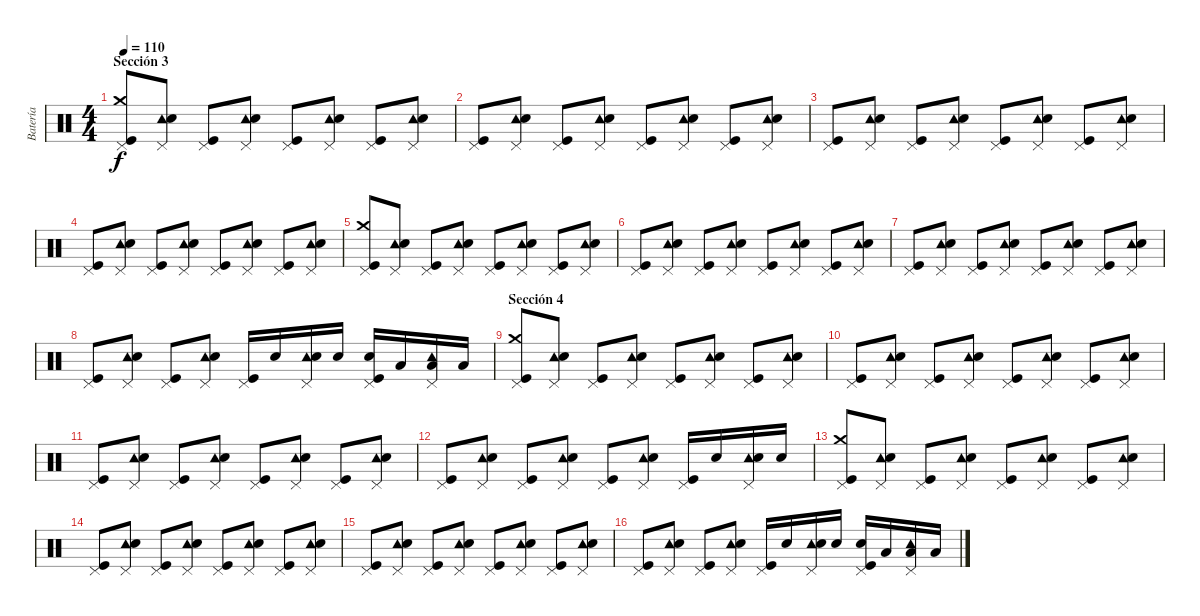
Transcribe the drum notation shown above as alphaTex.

\track ("Batería" "Batería") {instrument percussion}
\staff {score}
\articulation defaults
\ts (4 4)
\section ("" "Sección 3")
\tempo 110
\clef neutral
\ks c
("Pedal Hi-Hat (hit)" "Crash medium (hit)" "Kick (hit)").8{dy f} ("Pedal Hi-Hat (hit)" "Tambourine (hit)" "Electric Snare (hit)").8 ("Pedal Hi-Hat (hit)" "Kick (hit)").8 ("Pedal Hi-Hat (hit)" "Tambourine (hit)" "Electric Snare (hit)").8 ("Pedal Hi-Hat (hit)" "Kick (hit)").8 ("Pedal Hi-Hat (hit)" "Tambourine (hit)" "Electric Snare (hit)").8 ("Pedal Hi-Hat (hit)" "Kick (hit)").8 ("Pedal Hi-Hat (hit)" "Tambourine (hit)" "Electric Snare (hit)").8 |
("Pedal Hi-Hat (hit)" "Kick (hit)").8 ("Pedal Hi-Hat (hit)" "Tambourine (hit)" "Electric Snare (hit)").8 ("Pedal Hi-Hat (hit)" "Kick (hit)").8 ("Pedal Hi-Hat (hit)" "Tambourine (hit)" "Electric Snare (hit)").8 ("Pedal Hi-Hat (hit)" "Kick (hit)").8 ("Pedal Hi-Hat (hit)" "Tambourine (hit)" "Electric Snare (hit)").8 ("Pedal Hi-Hat (hit)" "Kick (hit)").8 ("Pedal Hi-Hat (hit)" "Tambourine (hit)" "Electric Snare (hit)").8 |
("Pedal Hi-Hat (hit)" "Kick (hit)").8 ("Pedal Hi-Hat (hit)" "Tambourine (hit)" "Electric Snare (hit)").8 ("Pedal Hi-Hat (hit)" "Kick (hit)").8 ("Pedal Hi-Hat (hit)" "Tambourine (hit)" "Electric Snare (hit)").8 ("Pedal Hi-Hat (hit)" "Kick (hit)").8 ("Pedal Hi-Hat (hit)" "Tambourine (hit)" "Electric Snare (hit)").8 ("Pedal Hi-Hat (hit)" "Kick (hit)").8 ("Pedal Hi-Hat (hit)" "Tambourine (hit)" "Electric Snare (hit)").8 |
("Pedal Hi-Hat (hit)" "Kick (hit)").8 ("Pedal Hi-Hat (hit)" "Tambourine (hit)" "Electric Snare (hit)").8 ("Pedal Hi-Hat (hit)" "Kick (hit)").8 ("Pedal Hi-Hat (hit)" "Tambourine (hit)" "Electric Snare (hit)").8 ("Pedal Hi-Hat (hit)" "Kick (hit)").8 ("Pedal Hi-Hat (hit)" "Tambourine (hit)" "Electric Snare (hit)").8 ("Pedal Hi-Hat (hit)" "Kick (hit)").8 ("Pedal Hi-Hat (hit)" "Tambourine (hit)" "Electric Snare (hit)").8 |
("Pedal Hi-Hat (hit)" "Crash medium (hit)" "Kick (hit)").8 ("Pedal Hi-Hat (hit)" "Tambourine (hit)" "Electric Snare (hit)").8 ("Pedal Hi-Hat (hit)" "Kick (hit)").8 ("Pedal Hi-Hat (hit)" "Tambourine (hit)" "Electric Snare (hit)").8 ("Pedal Hi-Hat (hit)" "Kick (hit)").8 ("Pedal Hi-Hat (hit)" "Tambourine (hit)" "Electric Snare (hit)").8 ("Pedal Hi-Hat (hit)" "Kick (hit)").8 ("Pedal Hi-Hat (hit)" "Tambourine (hit)" "Electric Snare (hit)").8 |
("Pedal Hi-Hat (hit)" "Kick (hit)").8 ("Pedal Hi-Hat (hit)" "Tambourine (hit)" "Electric Snare (hit)").8 ("Pedal Hi-Hat (hit)" "Kick (hit)").8 ("Pedal Hi-Hat (hit)" "Tambourine (hit)" "Electric Snare (hit)").8 ("Pedal Hi-Hat (hit)" "Kick (hit)").8 ("Pedal Hi-Hat (hit)" "Tambourine (hit)" "Electric Snare (hit)").8 ("Pedal Hi-Hat (hit)" "Kick (hit)").8 ("Pedal Hi-Hat (hit)" "Tambourine (hit)" "Electric Snare (hit)").8 |
("Pedal Hi-Hat (hit)" "Kick (hit)").8 ("Pedal Hi-Hat (hit)" "Tambourine (hit)" "Electric Snare (hit)").8 ("Pedal Hi-Hat (hit)" "Kick (hit)").8 ("Pedal Hi-Hat (hit)" "Tambourine (hit)" "Electric Snare (hit)").8 ("Pedal Hi-Hat (hit)" "Kick (hit)").8 ("Pedal Hi-Hat (hit)" "Tambourine (hit)" "Electric Snare (hit)").8 ("Pedal Hi-Hat (hit)" "Kick (hit)").8 ("Pedal Hi-Hat (hit)" "Tambourine (hit)" "Electric Snare (hit)").8 |
("Pedal Hi-Hat (hit)" "Kick (hit)").8 ("Pedal Hi-Hat (hit)" "Tambourine (hit)" "Electric Snare (hit)").8 ("Pedal Hi-Hat (hit)" "Kick (hit)").8 ("Pedal Hi-Hat (hit)" "Tambourine (hit)" "Electric Snare (hit)").8 ("Pedal Hi-Hat (hit)" "Kick (hit)").16 "Electric Snare (hit)".16 ("Pedal Hi-Hat (hit)" "Tambourine (hit)" "Electric Snare (hit)").16 "Electric Snare (hit)".16 ("Pedal Hi-Hat (hit)" "Electric Snare (hit)" "Kick (hit)").16 "Low Tom (hit)".16 ("Pedal Hi-Hat (hit)" "Tambourine (hit)" "Low Tom (hit)").16 "Low Tom (hit)".16 |
\section ("" "Sección 4")
("Pedal Hi-Hat (hit)" "Crash medium (hit)" "Kick (hit)").8 ("Pedal Hi-Hat (hit)" "Tambourine (hit)" "Electric Snare (hit)").8 ("Pedal Hi-Hat (hit)" "Kick (hit)").8 ("Pedal Hi-Hat (hit)" "Tambourine (hit)" "Electric Snare (hit)").8 ("Pedal Hi-Hat (hit)" "Kick (hit)").8 ("Pedal Hi-Hat (hit)" "Tambourine (hit)" "Electric Snare (hit)").8 ("Pedal Hi-Hat (hit)" "Kick (hit)").8 ("Pedal Hi-Hat (hit)" "Tambourine (hit)" "Electric Snare (hit)").8 |
("Pedal Hi-Hat (hit)" "Kick (hit)").8 ("Pedal Hi-Hat (hit)" "Tambourine (hit)" "Electric Snare (hit)").8 ("Pedal Hi-Hat (hit)" "Kick (hit)").8 ("Pedal Hi-Hat (hit)" "Tambourine (hit)" "Electric Snare (hit)").8 ("Pedal Hi-Hat (hit)" "Kick (hit)").8 ("Pedal Hi-Hat (hit)" "Tambourine (hit)" "Electric Snare (hit)").8 ("Pedal Hi-Hat (hit)" "Kick (hit)").8 ("Pedal Hi-Hat (hit)" "Tambourine (hit)" "Electric Snare (hit)").8 |
("Pedal Hi-Hat (hit)" "Kick (hit)").8 ("Pedal Hi-Hat (hit)" "Tambourine (hit)" "Electric Snare (hit)").8 ("Pedal Hi-Hat (hit)" "Kick (hit)").8 ("Pedal Hi-Hat (hit)" "Tambourine (hit)" "Electric Snare (hit)").8 ("Pedal Hi-Hat (hit)" "Kick (hit)").8 ("Pedal Hi-Hat (hit)" "Tambourine (hit)" "Electric Snare (hit)").8 ("Pedal Hi-Hat (hit)" "Kick (hit)").8 ("Pedal Hi-Hat (hit)" "Tambourine (hit)" "Electric Snare (hit)").8 |
("Pedal Hi-Hat (hit)" "Kick (hit)").8 ("Pedal Hi-Hat (hit)" "Tambourine (hit)" "Electric Snare (hit)").8 ("Pedal Hi-Hat (hit)" "Kick (hit)").8 ("Pedal Hi-Hat (hit)" "Tambourine (hit)" "Electric Snare (hit)").8 ("Pedal Hi-Hat (hit)" "Kick (hit)").8 ("Pedal Hi-Hat (hit)" "Tambourine (hit)" "Electric Snare (hit)").8 ("Pedal Hi-Hat (hit)" "Kick (hit)").16 "Electric Snare (hit)".16 ("Pedal Hi-Hat (hit)" "Tambourine (hit)" "Electric Snare (hit)").16 "Electric Snare (hit)".16 |
("Pedal Hi-Hat (hit)" "Crash medium (hit)" "Kick (hit)").8 ("Pedal Hi-Hat (hit)" "Tambourine (hit)" "Electric Snare (hit)").8 ("Pedal Hi-Hat (hit)" "Kick (hit)").8 ("Pedal Hi-Hat (hit)" "Tambourine (hit)" "Electric Snare (hit)").8 ("Pedal Hi-Hat (hit)" "Kick (hit)").8 ("Pedal Hi-Hat (hit)" "Tambourine (hit)" "Electric Snare (hit)").8 ("Pedal Hi-Hat (hit)" "Kick (hit)").8 ("Pedal Hi-Hat (hit)" "Tambourine (hit)" "Electric Snare (hit)").8 |
("Pedal Hi-Hat (hit)" "Kick (hit)").8 ("Pedal Hi-Hat (hit)" "Tambourine (hit)" "Electric Snare (hit)").8 ("Pedal Hi-Hat (hit)" "Kick (hit)").8 ("Pedal Hi-Hat (hit)" "Tambourine (hit)" "Electric Snare (hit)").8 ("Pedal Hi-Hat (hit)" "Kick (hit)").8 ("Pedal Hi-Hat (hit)" "Tambourine (hit)" "Electric Snare (hit)").8 ("Pedal Hi-Hat (hit)" "Kick (hit)").8 ("Pedal Hi-Hat (hit)" "Tambourine (hit)" "Electric Snare (hit)").8 |
("Pedal Hi-Hat (hit)" "Kick (hit)").8 ("Pedal Hi-Hat (hit)" "Tambourine (hit)" "Electric Snare (hit)").8 ("Pedal Hi-Hat (hit)" "Kick (hit)").8 ("Pedal Hi-Hat (hit)" "Tambourine (hit)" "Electric Snare (hit)").8 ("Pedal Hi-Hat (hit)" "Kick (hit)").8 ("Pedal Hi-Hat (hit)" "Tambourine (hit)" "Electric Snare (hit)").8 ("Pedal Hi-Hat (hit)" "Kick (hit)").8 ("Pedal Hi-Hat (hit)" "Tambourine (hit)" "Electric Snare (hit)").8 |
("Pedal Hi-Hat (hit)" "Kick (hit)").8 ("Pedal Hi-Hat (hit)" "Tambourine (hit)" "Electric Snare (hit)").8 ("Pedal Hi-Hat (hit)" "Kick (hit)").8 ("Pedal Hi-Hat (hit)" "Tambourine (hit)" "Electric Snare (hit)").8 ("Pedal Hi-Hat (hit)" "Kick (hit)").16 "Electric Snare (hit)".16 ("Pedal Hi-Hat (hit)" "Tambourine (hit)" "Electric Snare (hit)").16 "Electric Snare (hit)".16 ("Pedal Hi-Hat (hit)" "Electric Snare (hit)" "Kick (hit)").16 "Low Tom (hit)".16 ("Pedal Hi-Hat (hit)" "Tambourine (hit)" "Low Tom (hit)").16 "Low Tom (hit)".16
